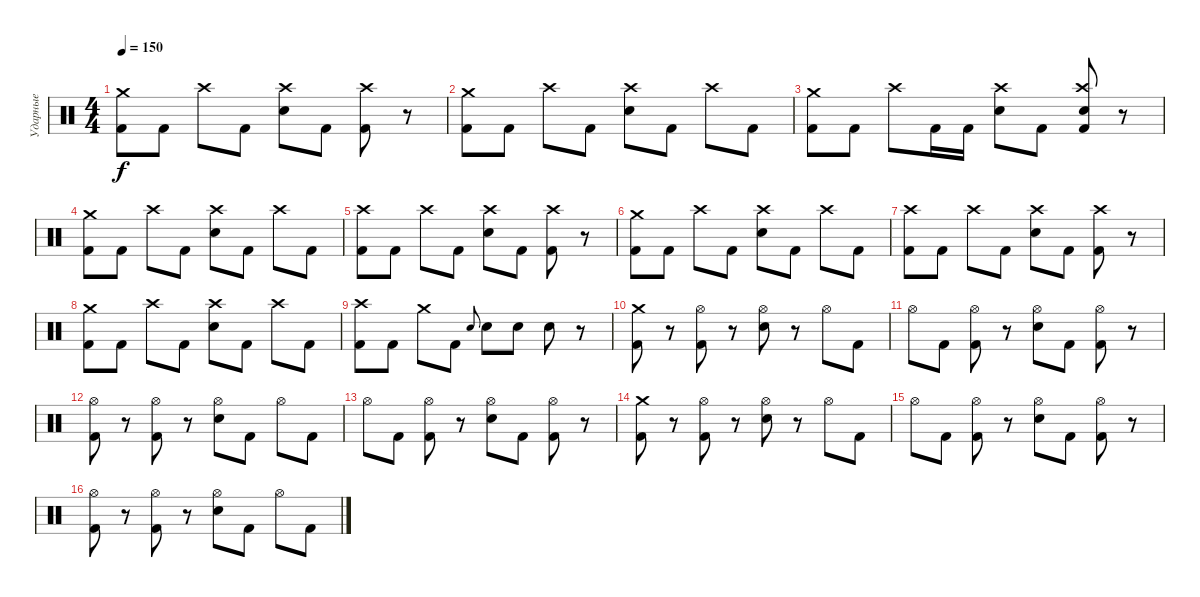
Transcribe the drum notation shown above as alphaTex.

\track ("Ударные" "Ударные") {instrument percussion}
\staff {score}
\articulation defaults
\ts (4 4)
\tempo 150
\clef neutral
\ks c
("Kick (hit) 2" "Crash medium (hit)").8{dy f} "Kick (hit) 2".8 "Crash high (hit)".8 "Kick (hit) 2".8 ("Electric Snare (hit)" "Crash high (hit)").8 "Kick (hit) 2".8 ("Kick (hit) 2" "Crash high (hit)").8 r.8 |
("Kick (hit) 2" "Crash medium (hit)").8 "Kick (hit) 2".8 "Crash high (hit)".8 "Kick (hit) 2".8 ("Electric Snare (hit)" "Crash high (hit)").8 "Kick (hit) 2".8 "Crash high (hit)".8 "Kick (hit) 2".8 |
("Kick (hit) 2" "Crash medium (hit)").8 "Kick (hit) 2".8 "Crash high (hit)".8 "Kick (hit) 2".16 "Kick (hit) 2".16 ("Electric Snare (hit)" "Crash high (hit)").8 "Kick (hit) 2".8 ("Kick (hit) 2" "Electric Snare (hit)" "Crash high (hit)").8 r.8 |
("Kick (hit) 2" "Crash medium (hit)").8 "Kick (hit) 2".8 "Crash high (hit)".8 "Kick (hit) 2".8 ("Electric Snare (hit)" "Crash high (hit)").8 "Kick (hit) 2".8 "Crash high (hit)".8 "Kick (hit) 2".8 |
("Kick (hit) 2" "Crash high (hit)").8 "Kick (hit) 2".8 "Crash high (hit)".8 "Kick (hit) 2".8 ("Electric Snare (hit)" "Crash high (hit)").8 "Kick (hit) 2".8 ("Kick (hit) 2" "Crash high (hit)").8 r.8 |
("Kick (hit) 2" "Crash medium (hit)").8 "Kick (hit) 2".8 "Crash high (hit)".8 "Kick (hit) 2".8 ("Electric Snare (hit)" "Crash high (hit)").8 "Kick (hit) 2".8 "Crash high (hit)".8 "Kick (hit) 2".8 |
("Kick (hit) 2" "Crash high (hit)").8 "Kick (hit) 2".8 "Crash high (hit)".8 "Kick (hit) 2".8 ("Electric Snare (hit)" "Crash high (hit)").8 "Kick (hit) 2".8 ("Kick (hit) 2" "Crash high (hit)").8 r.8 |
("Kick (hit) 2" "Crash medium (hit)").8 "Kick (hit) 2".8 "Crash high (hit)".8 "Kick (hit) 2".8 ("Electric Snare (hit)" "Crash high (hit)").8 "Kick (hit) 2".8 "Crash high (hit)".8 "Kick (hit) 2".8 |
("Kick (hit) 2" "Crash high (hit)").8 "Kick (hit) 2".8 "Crash medium (hit)".8 "Kick (hit) 2".8 "Electric Snare (hit)".8{gr onbeat} "Electric Snare (hit)".8 "Electric Snare (hit)".8 "Electric Snare (hit)".8 r.8 |
("Kick (hit) 2" "Crash medium (hit)").8 r.8 ("Kick (hit) 2" "Hi-Hat (open)").8 r.8 ("Electric Snare (hit)" "Hi-Hat (open)").8 r.8 "Hi-Hat (open)".8 "Kick (hit) 2".8 |
"Hi-Hat (open)".8 "Kick (hit) 2".8 ("Kick (hit) 2" "Hi-Hat (open)").8 r.8 ("Electric Snare (hit)" "Hi-Hat (open)").8 "Kick (hit) 2".8 ("Kick (hit) 2" "Hi-Hat (open)").8 r.8 |
("Kick (hit) 2" "Hi-Hat (open)").8 r.8 ("Kick (hit) 2" "Hi-Hat (open)").8 r.8 ("Electric Snare (hit)" "Hi-Hat (open)").8 "Kick (hit) 2".8 "Hi-Hat (open)".8 "Kick (hit) 2".8 |
"Hi-Hat (open)".8 "Kick (hit) 2".8 ("Kick (hit) 2" "Hi-Hat (open)").8 r.8 ("Electric Snare (hit)" "Hi-Hat (open)").8 "Kick (hit) 2".8 ("Kick (hit) 2" "Hi-Hat (open)").8 r.8 |
("Kick (hit) 2" "Crash medium (hit)").8 r.8 ("Kick (hit) 2" "Hi-Hat (open)").8 r.8 ("Electric Snare (hit)" "Hi-Hat (open)").8 r.8 "Hi-Hat (open)".8 "Kick (hit) 2".8 |
"Hi-Hat (open)".8 "Kick (hit) 2".8 ("Kick (hit) 2" "Hi-Hat (open)").8 r.8 ("Electric Snare (hit)" "Hi-Hat (open)").8 "Kick (hit) 2".8 ("Kick (hit) 2" "Hi-Hat (open)").8 r.8 |
("Kick (hit) 2" "Hi-Hat (open)").8 r.8 ("Kick (hit) 2" "Hi-Hat (open)").8 r.8 ("Electric Snare (hit)" "Hi-Hat (open)").8 "Kick (hit) 2".8 "Hi-Hat (open)".8 "Kick (hit) 2".8
